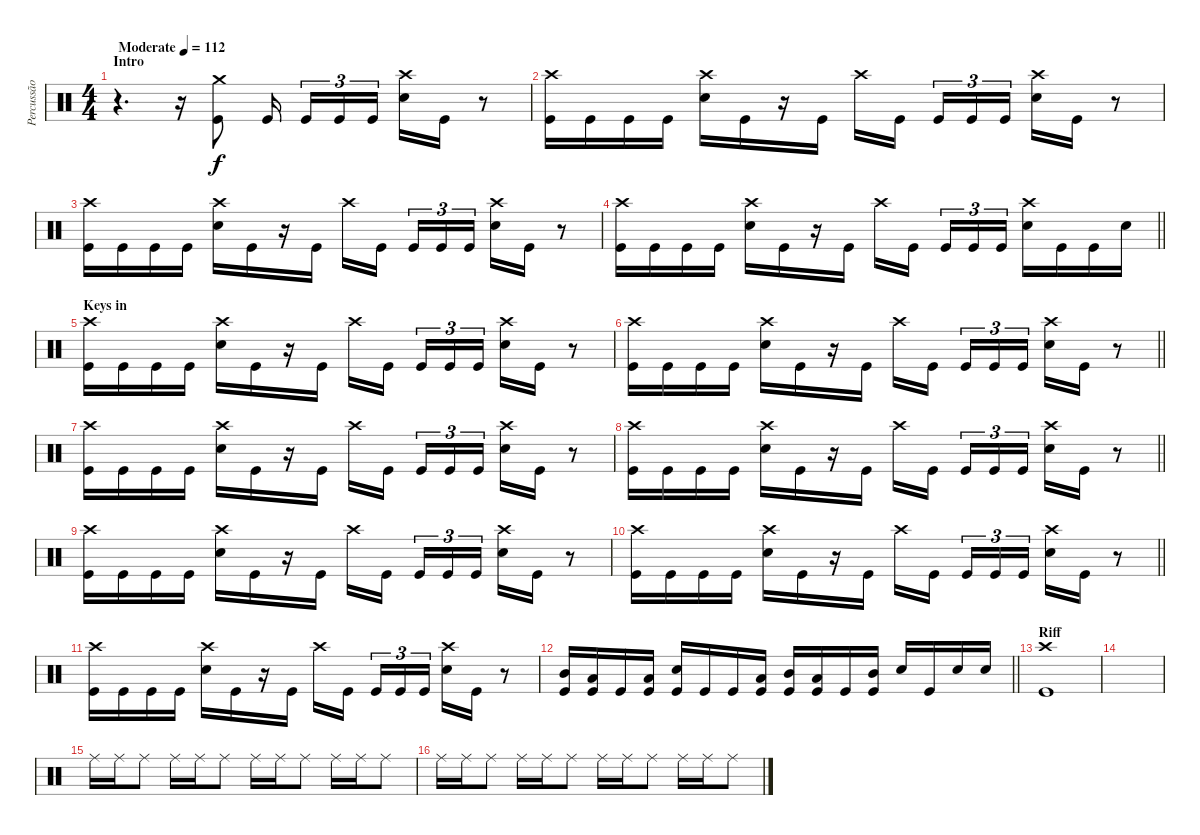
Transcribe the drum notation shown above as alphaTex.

\track ("Percussão" "Percussão") {instrument percussion}
\staff {score}
\articulation defaults
\ts (4 4)
\section ("" "Intro")
\tempo (112 "Moderate")
\clef neutral
\ks c
r.4{d dy f} r.16 ("Crash medium (hit)" "Kick (hit)").8 "Kick (hit)".16{beam splitsecondary} "Kick (hit)".16{tu (3 2)} "Kick (hit)".16{tu (3 2)} "Kick (hit)".16{tu (3 2)} ("Crash high (hit)" "Electric Snare (hit)").16 "Kick (hit)".16 r.8 |
("Crash high (hit)" "Kick (hit)").16 "Kick (hit)".16 "Kick (hit)".16 "Kick (hit)".16 ("Crash high (hit)" "Electric Snare (hit)").16 "Kick (hit)".16 r.16 "Kick (hit)".16 "Crash high (hit)".16 "Kick (hit)".16{beam splitsecondary} "Kick (hit)".16{tu (3 2)} "Kick (hit)".16{tu (3 2)} "Kick (hit)".16{tu (3 2)} ("Crash high (hit)" "Electric Snare (hit)").16 "Kick (hit)".16 r.8 |
("Crash high (hit)" "Kick (hit)").16 "Kick (hit)".16 "Kick (hit)".16 "Kick (hit)".16 ("Crash high (hit)" "Electric Snare (hit)").16 "Kick (hit)".16 r.16 "Kick (hit)".16 "Crash high (hit)".16 "Kick (hit)".16{beam splitsecondary} "Kick (hit)".16{tu (3 2)} "Kick (hit)".16{tu (3 2)} "Kick (hit)".16{tu (3 2)} ("Crash high (hit)" "Electric Snare (hit)").16 "Kick (hit)".16 r.8 |
\barLineRight lightlight
("Crash high (hit)" "Kick (hit)").16 "Kick (hit)".16 "Kick (hit)".16 "Kick (hit)".16 ("Crash high (hit)" "Electric Snare (hit)").16 "Kick (hit)".16 r.16 "Kick (hit)".16 "Crash high (hit)".16 "Kick (hit)".16{beam splitsecondary} "Kick (hit)".16{tu (3 2)} "Kick (hit)".16{tu (3 2)} "Kick (hit)".16{tu (3 2)} ("Crash high (hit)" "Electric Snare (hit)").16 "Kick (hit)".16 "Kick (hit)".16 "Electric Snare (hit)".16 |
\section ("" "Keys in")
("Crash high (hit)" "Kick (hit)").16 "Kick (hit)".16 "Kick (hit)".16 "Kick (hit)".16 ("Crash high (hit)" "Electric Snare (hit)").16 "Kick (hit)".16 r.16 "Kick (hit)".16 "Crash high (hit)".16 "Kick (hit)".16{beam splitsecondary} "Kick (hit)".16{tu (3 2)} "Kick (hit)".16{tu (3 2)} "Kick (hit)".16{tu (3 2)} ("Crash high (hit)" "Electric Snare (hit)").16 "Kick (hit)".16 r.8 |
\barLineRight lightlight
("Crash high (hit)" "Kick (hit)").16 "Kick (hit)".16 "Kick (hit)".16 "Kick (hit)".16 ("Crash high (hit)" "Electric Snare (hit)").16 "Kick (hit)".16 r.16 "Kick (hit)".16 "Crash high (hit)".16 "Kick (hit)".16{beam splitsecondary} "Kick (hit)".16{tu (3 2)} "Kick (hit)".16{tu (3 2)} "Kick (hit)".16{tu (3 2)} ("Crash high (hit)" "Electric Snare (hit)").16 "Kick (hit)".16 r.8 |
("Crash high (hit)" "Kick (hit)").16 "Kick (hit)".16 "Kick (hit)".16 "Kick (hit)".16 ("Crash high (hit)" "Electric Snare (hit)").16 "Kick (hit)".16 r.16 "Kick (hit)".16 "Crash high (hit)".16 "Kick (hit)".16{beam splitsecondary} "Kick (hit)".16{tu (3 2)} "Kick (hit)".16{tu (3 2)} "Kick (hit)".16{tu (3 2)} ("Crash high (hit)" "Electric Snare (hit)").16 "Kick (hit)".16 r.8 |
\barLineRight lightlight
("Crash high (hit)" "Kick (hit)").16 "Kick (hit)".16 "Kick (hit)".16 "Kick (hit)".16 ("Crash high (hit)" "Electric Snare (hit)").16 "Kick (hit)".16 r.16 "Kick (hit)".16 "Crash high (hit)".16 "Kick (hit)".16{beam splitsecondary} "Kick (hit)".16{tu (3 2)} "Kick (hit)".16{tu (3 2)} "Kick (hit)".16{tu (3 2)} ("Crash high (hit)" "Electric Snare (hit)").16 "Kick (hit)".16 r.8 |
("Crash high (hit)" "Kick (hit)").16 "Kick (hit)".16 "Kick (hit)".16 "Kick (hit)".16 ("Crash high (hit)" "Electric Snare (hit)").16 "Kick (hit)".16 r.16 "Kick (hit)".16 "Crash high (hit)".16 "Kick (hit)".16{beam splitsecondary} "Kick (hit)".16{tu (3 2)} "Kick (hit)".16{tu (3 2)} "Kick (hit)".16{tu (3 2)} ("Crash high (hit)" "Electric Snare (hit)").16 "Kick (hit)".16 r.8 |
\barLineRight lightlight
("Crash high (hit)" "Kick (hit)").16 "Kick (hit)".16 "Kick (hit)".16 "Kick (hit)".16 ("Crash high (hit)" "Electric Snare (hit)").16 "Kick (hit)".16 r.16 "Kick (hit)".16 "Crash high (hit)".16 "Kick (hit)".16{beam splitsecondary} "Kick (hit)".16{tu (3 2)} "Kick (hit)".16{tu (3 2)} "Kick (hit)".16{tu (3 2)} ("Crash high (hit)" "Electric Snare (hit)").16 "Kick (hit)".16 r.8 |
("Crash high (hit)" "Kick (hit)").16 "Kick (hit)".16 "Kick (hit)".16 "Kick (hit)".16 ("Crash high (hit)" "Electric Snare (hit)").16 "Kick (hit)".16 r.16 "Kick (hit)".16 "Crash high (hit)".16 "Kick (hit)".16{beam splitsecondary} "Kick (hit)".16{tu (3 2)} "Kick (hit)".16{tu (3 2)} "Kick (hit)".16{tu (3 2)} ("Crash high (hit)" "Electric Snare (hit)").16 "Kick (hit)".16 r.8 |
\barLineRight lightlight
("Mid Tom (hit)" "Kick (hit)").16 ("Low Tom (hit)" "Kick (hit)").16 "Kick (hit)".16 ("Low Tom (hit)" "Kick (hit)").16 ("Electric Snare (hit)" "Kick (hit)").16 "Kick (hit)".16 "Kick (hit)".16 ("Low Tom (hit)" "Kick (hit)").16 ("Mid Tom (hit)" "Kick (hit)").16 ("Low Tom (hit)" "Kick (hit)").16 "Kick (hit)".16 ("Mid Tom (hit)" "Kick (hit)").16 "Electric Snare (hit)".16 "Kick (hit)".16 "Electric Snare (hit)".16 "Electric Snare (hit)".16 |
\section ("" "Riff")
("Crash high (hit)" "Kick (hit)").1 |
|
"Ride (middle)".16 "Ride (middle)".16 "Ride (middle)".8 "Ride (middle)".16 "Ride (middle)".16 "Ride (middle)".8 "Ride (middle)".16 "Ride (middle)".16 "Ride (middle)".8 "Ride (middle)".16 "Ride (middle)".16 "Ride (middle)".8 |
"Ride (middle)".16 "Ride (middle)".16 "Ride (middle)".8 "Ride (middle)".16 "Ride (middle)".16 "Ride (middle)".8 "Ride (middle)".16 "Ride (middle)".16 "Ride (middle)".8 "Ride (middle)".16 "Ride (middle)".16 "Ride (middle)".8
